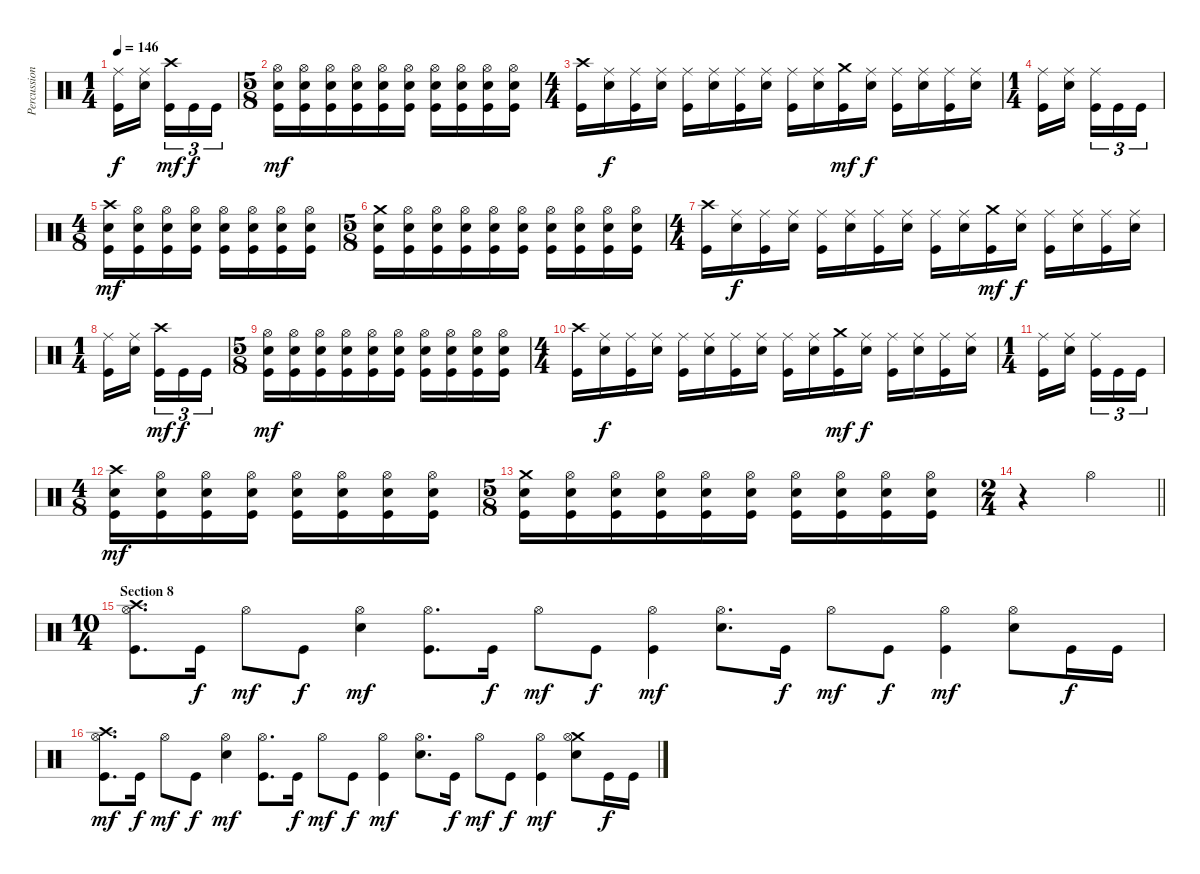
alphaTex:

\track ("Percussion" "Percussion") {instrument percussion}
\staff {score}
\articulation defaults
\ts (1 4)
\tempo 146
\clef neutral
\ks c
("Ride (middle)" "Kick (hit)").16{dy f} ("Ride (middle)" "Electric Snare (hit)").16{beam splitsecondary} ("Crash high (hit)" "Kick (hit)").16{tu (3 2) dy mf} "Kick (hit)".16{tu (3 2) dy f} "Kick (hit)".16{tu (3 2)} |
\ts (5 8)
("Hi-Hat (open)" "Electric Snare (hit)" "Kick (hit)").16{dy mf} ("Hi-Hat (open)" "Electric Snare (hit)" "Kick (hit)").16 ("Hi-Hat (open)" "Electric Snare (hit)" "Kick (hit)").16 ("Hi-Hat (open)" "Electric Snare (hit)" "Kick (hit)").16 ("Hi-Hat (open)" "Electric Snare (hit)" "Kick (hit)").16 ("Hi-Hat (open)" "Electric Snare (hit)" "Kick (hit)").16 ("Hi-Hat (open)" "Electric Snare (hit)" "Kick (hit)").16 ("Hi-Hat (open)" "Electric Snare (hit)" "Kick (hit)").16 ("Hi-Hat (open)" "Electric Snare (hit)" "Kick (hit)").16 ("Hi-Hat (open)" "Electric Snare (hit)" "Kick (hit)").16 |
\ts (4 4)
("Crash high (hit)" "Kick (hit)").16 ("Ride (middle)" "Electric Snare (hit)").16{dy f} ("Ride (middle)" "Kick (hit)").16 ("Ride (middle)" "Electric Snare (hit)").16 ("Ride (middle)" "Kick (hit)").16 ("Ride (middle)" "Electric Snare (hit)").16 ("Ride (middle)" "Kick (hit)").16 ("Ride (middle)" "Electric Snare (hit)").16 ("Ride (middle)" "Kick (hit)").16 ("Ride (middle)" "Electric Snare (hit)").16 ("Crash medium (hit)" "Kick (hit)").16{dy mf} ("Ride (middle)" "Electric Snare (hit)").16{dy f} ("Ride (middle)" "Kick (hit)").16 ("Ride (middle)" "Electric Snare (hit)").16 ("Ride (middle)" "Kick (hit)").16 ("Ride (middle)" "Electric Snare (hit)").16 |
\ts (1 4)
("Ride (middle)" "Kick (hit)").16 ("Ride (middle)" "Electric Snare (hit)").16{beam splitsecondary} ("Ride (middle)" "Kick (hit)").16{tu (3 2)} "Kick (hit)".16{tu (3 2)} "Kick (hit)".16{tu (3 2)} |
\ts (4 8)
("Crash high (hit)" "Electric Snare (hit)" "Kick (hit)").16{dy mf} ("Hi-Hat (open)" "Electric Snare (hit)" "Kick (hit)").16 ("Hi-Hat (open)" "Electric Snare (hit)" "Kick (hit)").16 ("Hi-Hat (open)" "Electric Snare (hit)" "Kick (hit)").16 ("Hi-Hat (open)" "Electric Snare (hit)" "Kick (hit)").16 ("Hi-Hat (open)" "Electric Snare (hit)" "Kick (hit)").16 ("Hi-Hat (open)" "Electric Snare (hit)" "Kick (hit)").16 ("Hi-Hat (open)" "Electric Snare (hit)" "Kick (hit)").16 |
\ts (5 8)
("Crash medium (hit)" "Electric Snare (hit)" "Kick (hit)").16 ("Hi-Hat (open)" "Electric Snare (hit)" "Kick (hit)").16 ("Hi-Hat (open)" "Electric Snare (hit)" "Kick (hit)").16 ("Hi-Hat (open)" "Electric Snare (hit)" "Kick (hit)").16 ("Hi-Hat (open)" "Electric Snare (hit)" "Kick (hit)").16 ("Hi-Hat (open)" "Electric Snare (hit)" "Kick (hit)").16 ("Hi-Hat (open)" "Electric Snare (hit)" "Kick (hit)").16 ("Hi-Hat (open)" "Electric Snare (hit)" "Kick (hit)").16 ("Hi-Hat (open)" "Electric Snare (hit)" "Kick (hit)").16 ("Hi-Hat (open)" "Electric Snare (hit)" "Kick (hit)").16 |
\ts (4 4)
("Crash high (hit)" "Kick (hit)").16 ("Ride (middle)" "Electric Snare (hit)").16{dy f} ("Ride (middle)" "Kick (hit)").16 ("Ride (middle)" "Electric Snare (hit)").16 ("Ride (middle)" "Kick (hit)").16 ("Ride (middle)" "Electric Snare (hit)").16 ("Ride (middle)" "Kick (hit)").16 ("Ride (middle)" "Electric Snare (hit)").16 ("Ride (middle)" "Kick (hit)").16 ("Ride (middle)" "Electric Snare (hit)").16 ("Crash medium (hit)" "Kick (hit)").16{dy mf} ("Ride (middle)" "Electric Snare (hit)").16{dy f} ("Ride (middle)" "Kick (hit)").16 ("Ride (middle)" "Electric Snare (hit)").16 ("Ride (middle)" "Kick (hit)").16 ("Ride (middle)" "Electric Snare (hit)").16 |
\ts (1 4)
("Ride (middle)" "Kick (hit)").16 ("Ride (middle)" "Electric Snare (hit)").16{beam splitsecondary} ("Crash high (hit)" "Kick (hit)").16{tu (3 2) dy mf} "Kick (hit)".16{tu (3 2) dy f} "Kick (hit)".16{tu (3 2)} |
\ts (5 8)
("Hi-Hat (open)" "Electric Snare (hit)" "Kick (hit)").16{dy mf} ("Hi-Hat (open)" "Electric Snare (hit)" "Kick (hit)").16 ("Hi-Hat (open)" "Electric Snare (hit)" "Kick (hit)").16 ("Hi-Hat (open)" "Electric Snare (hit)" "Kick (hit)").16 ("Hi-Hat (open)" "Electric Snare (hit)" "Kick (hit)").16 ("Hi-Hat (open)" "Electric Snare (hit)" "Kick (hit)").16 ("Hi-Hat (open)" "Electric Snare (hit)" "Kick (hit)").16 ("Hi-Hat (open)" "Electric Snare (hit)" "Kick (hit)").16 ("Hi-Hat (open)" "Electric Snare (hit)" "Kick (hit)").16 ("Hi-Hat (open)" "Electric Snare (hit)" "Kick (hit)").16 |
\ts (4 4)
("Crash high (hit)" "Kick (hit)").16 ("Ride (middle)" "Electric Snare (hit)").16{dy f} ("Ride (middle)" "Kick (hit)").16 ("Ride (middle)" "Electric Snare (hit)").16 ("Ride (middle)" "Kick (hit)").16 ("Ride (middle)" "Electric Snare (hit)").16 ("Ride (middle)" "Kick (hit)").16 ("Ride (middle)" "Electric Snare (hit)").16 ("Ride (middle)" "Kick (hit)").16 ("Ride (middle)" "Electric Snare (hit)").16 ("Crash medium (hit)" "Kick (hit)").16{dy mf} ("Ride (middle)" "Electric Snare (hit)").16{dy f} ("Ride (middle)" "Kick (hit)").16 ("Ride (middle)" "Electric Snare (hit)").16 ("Ride (middle)" "Kick (hit)").16 ("Ride (middle)" "Electric Snare (hit)").16 |
\ts (1 4)
("Ride (middle)" "Kick (hit)").16 ("Ride (middle)" "Electric Snare (hit)").16{beam splitsecondary} ("Ride (middle)" "Kick (hit)").16{tu (3 2)} "Kick (hit)".16{tu (3 2)} "Kick (hit)".16{tu (3 2)} |
\ts (4 8)
("Crash high (hit)" "Electric Snare (hit)" "Kick (hit)").16{dy mf} ("Hi-Hat (open)" "Electric Snare (hit)" "Kick (hit)").16 ("Hi-Hat (open)" "Electric Snare (hit)" "Kick (hit)").16 ("Hi-Hat (open)" "Electric Snare (hit)" "Kick (hit)").16 ("Hi-Hat (open)" "Electric Snare (hit)" "Kick (hit)").16 ("Hi-Hat (open)" "Electric Snare (hit)" "Kick (hit)").16 ("Hi-Hat (open)" "Electric Snare (hit)" "Kick (hit)").16 ("Hi-Hat (open)" "Electric Snare (hit)" "Kick (hit)").16 |
\ts (5 8)
("Crash medium (hit)" "Electric Snare (hit)" "Kick (hit)").16 ("Hi-Hat (open)" "Electric Snare (hit)" "Kick (hit)").16 ("Hi-Hat (open)" "Electric Snare (hit)" "Kick (hit)").16 ("Hi-Hat (open)" "Electric Snare (hit)" "Kick (hit)").16 ("Hi-Hat (open)" "Electric Snare (hit)" "Kick (hit)").16 ("Hi-Hat (open)" "Electric Snare (hit)" "Kick (hit)").16 ("Hi-Hat (open)" "Electric Snare (hit)" "Kick (hit)").16 ("Hi-Hat (open)" "Electric Snare (hit)" "Kick (hit)").16 ("Hi-Hat (open)" "Electric Snare (hit)" "Kick (hit)").16 ("Hi-Hat (open)" "Electric Snare (hit)" "Kick (hit)").16 |
\ts (2 4)
\barLineRight lightlight
r.4 "Hi-Hat (open)".4 |
\ts (10 4)
\section ("" "Section 8")
("Crash high (hit)" "Hi-Hat (open)" "Kick (hit)").8{d} "Kick (hit)".16{dy f} "Hi-Hat (open)".8{dy mf} "Kick (hit)".8{dy f} ("Hi-Hat (open)" "Electric Snare (hit)").4{dy mf} ("Hi-Hat (open)" "Kick (hit)").8{d} "Kick (hit)".16{dy f} "Hi-Hat (open)".8{dy mf} "Kick (hit)".8{dy f} ("Hi-Hat (open)" "Kick (hit)").4{dy mf} ("Hi-Hat (open)" "Electric Snare (hit)").8{d} "Kick (hit)".16{dy f} "Hi-Hat (open)".8{dy mf} "Kick (hit)".8{dy f} ("Hi-Hat (open)" "Kick (hit)").4{dy mf} ("Hi-Hat (open)" "Electric Snare (hit)").8 "Kick (hit)".16{dy f} "Kick (hit)".16 |
("Crash high (hit)" "Hi-Hat (open)" "Kick (hit)").8{d dy mf} "Kick (hit)".16{dy f} "Hi-Hat (open)".8{dy mf} "Kick (hit)".8{dy f} ("Hi-Hat (open)" "Electric Snare (hit)").4{dy mf} ("Hi-Hat (open)" "Kick (hit)").8{d} "Kick (hit)".16{dy f} "Hi-Hat (open)".8{dy mf} "Kick (hit)".8{dy f} ("Hi-Hat (open)" "Kick (hit)").4{dy mf} ("Hi-Hat (open)" "Electric Snare (hit)").8{d} "Kick (hit)".16{dy f} "Hi-Hat (open)".8{dy mf} "Kick (hit)".8{dy f} ("Hi-Hat (open)" "Kick (hit)").4{dy mf} ("Crash medium (hit)" "Hi-Hat (open)" "Electric Snare (hit)").8 "Kick (hit)".16{dy f} "Kick (hit)".16
